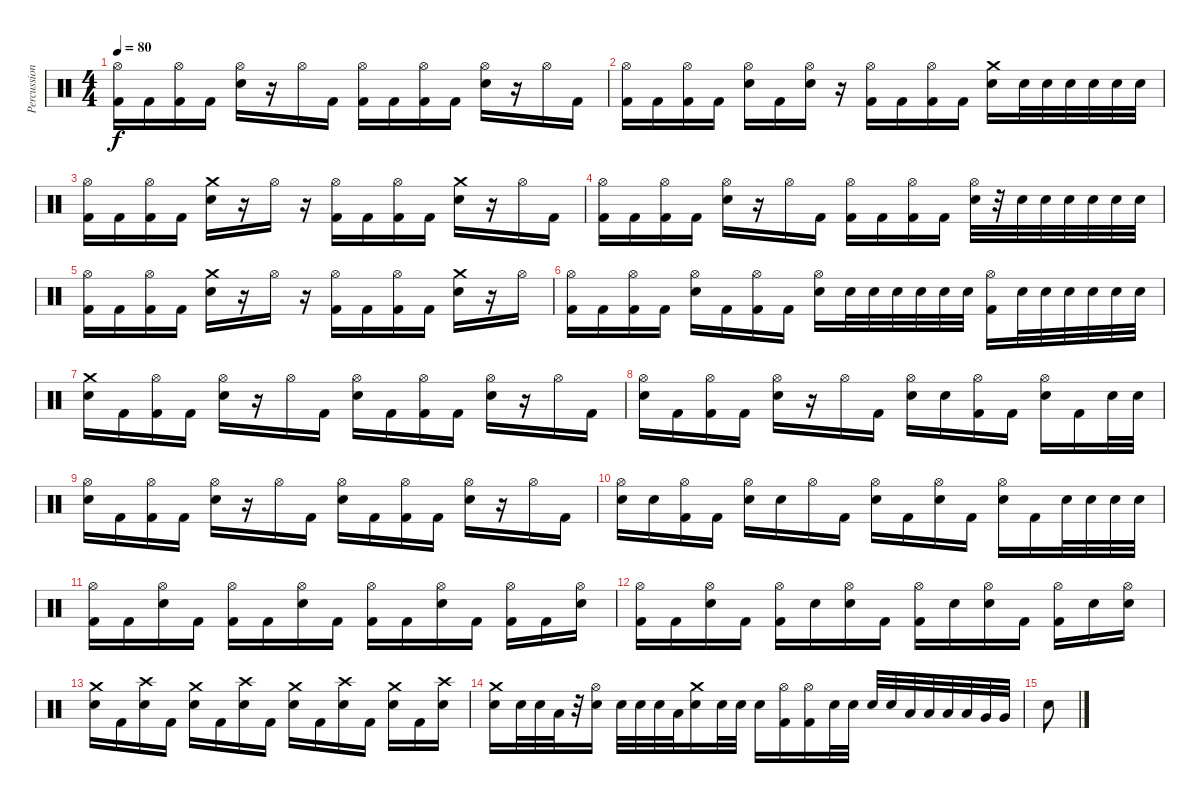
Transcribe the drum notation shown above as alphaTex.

\track ("Percussion" "Percussion") {instrument percussion}
\staff {score}
\articulation defaults
\ts (4 4)
\tempo 80
\clef neutral
\ks c
("Hi-Hat (open)" "Kick (hit) 2").16{dy f} "Kick (hit) 2".16 ("Hi-Hat (open)" "Kick (hit) 2").16 "Kick (hit) 2".16 ("Hi-Hat (open)" "Electric Snare (hit)").16 r.16 "Hi-Hat (open)".16 "Kick (hit) 2".16 ("Hi-Hat (open)" "Kick (hit) 2").16 "Kick (hit) 2".16 ("Hi-Hat (open)" "Kick (hit) 2").16 "Kick (hit) 2".16 ("Hi-Hat (open)" "Electric Snare (hit)").16 r.16 "Hi-Hat (open)".16 "Kick (hit) 2".16 |
("Hi-Hat (open)" "Kick (hit) 2").16 "Kick (hit) 2".16 ("Hi-Hat (open)" "Kick (hit) 2").16 "Kick (hit) 2".16 ("Hi-Hat (open)" "Electric Snare (hit)").16 "Kick (hit) 2".16 ("Hi-Hat (open)" "Electric Snare (hit)").16 r.16 ("Hi-Hat (open)" "Kick (hit) 2").16 "Kick (hit) 2".16 ("Hi-Hat (open)" "Kick (hit) 2").16 "Kick (hit) 2".16 ("Crash medium (hit)" "Electric Snare (hit)").16 "Electric Snare (hit)".32 "Electric Snare (hit)".32 "Electric Snare (hit)".32 "Electric Snare (hit)".32 "Electric Snare (hit)".32 "Electric Snare (hit)".32 |
("Hi-Hat (open)" "Kick (hit) 2").16 "Kick (hit) 2".16 ("Hi-Hat (open)" "Kick (hit) 2").16 "Kick (hit) 2".16 ("Crash medium (hit)" "Electric Snare (hit)").16 r.16 "Hi-Hat (open)".16 r.16 ("Hi-Hat (open)" "Kick (hit) 2").16 "Kick (hit) 2".16 ("Hi-Hat (open)" "Kick (hit) 2").16 "Kick (hit) 2".16 ("Crash medium (hit)" "Electric Snare (hit)").16 r.16 "Hi-Hat (open)".16 "Kick (hit) 2".16 |
("Hi-Hat (open)" "Kick (hit) 2").16 "Kick (hit) 2".16 ("Hi-Hat (open)" "Kick (hit) 2").16 "Kick (hit) 2".16 ("Hi-Hat (open)" "Electric Snare (hit)").16 r.16 "Hi-Hat (open)".16 "Kick (hit) 2".16 ("Hi-Hat (open)" "Kick (hit) 2").16 "Kick (hit) 2".16 ("Hi-Hat (open)" "Kick (hit) 2").16 "Kick (hit) 2".16 ("Hi-Hat (open)" "Electric Snare (hit)").32 r.32 "Electric Snare (hit)".32 "Electric Snare (hit)".32 "Electric Snare (hit)".32 "Electric Snare (hit)".32 "Electric Snare (hit)".32 "Electric Snare (hit)".32 |
("Hi-Hat (open)" "Kick (hit) 2").16 "Kick (hit) 2".16 ("Hi-Hat (open)" "Kick (hit) 2").16 "Kick (hit) 2".16 ("Crash medium (hit)" "Electric Snare (hit)").16 r.16 "Hi-Hat (open)".16 r.16 ("Hi-Hat (open)" "Kick (hit) 2").16 "Kick (hit) 2".16 ("Hi-Hat (open)" "Kick (hit) 2").16 "Kick (hit) 2".16 ("Crash medium (hit)" "Electric Snare (hit)").16 r.16 "Hi-Hat (open)".16 |
("Hi-Hat (open)" "Kick (hit) 2").16 "Kick (hit) 2".16 ("Hi-Hat (open)" "Kick (hit) 2").16 "Kick (hit) 2".16 ("Hi-Hat (open)" "Electric Snare (hit)").16 "Kick (hit) 2".16 ("Hi-Hat (open)" "Kick (hit) 2").16 "Kick (hit) 2".16 ("Hi-Hat (open)" "Electric Snare (hit)").16 "Electric Snare (hit)".32 "Electric Snare (hit)".32 "Electric Snare (hit)".32 "Electric Snare (hit)".32 "Electric Snare (hit)".32 "Electric Snare (hit)".32 ("Hi-Hat (open)" "Kick (hit) 2").16 "Electric Snare (hit)".32 "Electric Snare (hit)".32 "Electric Snare (hit)".32 "Electric Snare (hit)".32 "Electric Snare (hit)".32 "Electric Snare (hit)".32 |
("Crash medium (hit)" "Electric Snare (hit)").16 "Kick (hit) 2".16 ("Hi-Hat (open)" "Kick (hit) 2").16 "Kick (hit) 2".16 ("Hi-Hat (open)" "Electric Snare (hit)").16 r.16 "Hi-Hat (open)".16 "Kick (hit) 2".16 ("Hi-Hat (open)" "Electric Snare (hit)").16 "Kick (hit) 2".16 ("Hi-Hat (open)" "Kick (hit) 2").16 "Kick (hit) 2".16 ("Hi-Hat (open)" "Electric Snare (hit)").16 r.16 "Hi-Hat (open)".16 "Kick (hit) 2".16 |
("Hi-Hat (open)" "Electric Snare (hit)").16 "Kick (hit) 2".16 ("Hi-Hat (open)" "Kick (hit) 2").16 "Kick (hit) 2".16 ("Hi-Hat (open)" "Electric Snare (hit)").16 r.16 "Hi-Hat (open)".16 "Kick (hit) 2".16 ("Hi-Hat (open)" "Electric Snare (hit)").16 "Electric Snare (hit)".16 ("Hi-Hat (open)" "Kick (hit) 2").16 "Kick (hit) 2".16 ("Hi-Hat (open)" "Electric Snare (hit)").16 "Kick (hit) 2".16 "Electric Snare (hit)".32 "Electric Snare (hit)".32 |
("Hi-Hat (open)" "Electric Snare (hit)").16 "Kick (hit) 2".16 ("Hi-Hat (open)" "Kick (hit) 2").16 "Kick (hit) 2".16 ("Hi-Hat (open)" "Electric Snare (hit)").16 r.16 "Hi-Hat (open)".16 "Kick (hit) 2".16 ("Hi-Hat (open)" "Electric Snare (hit)").16 "Kick (hit) 2".16 ("Hi-Hat (open)" "Kick (hit) 2").16 "Kick (hit) 2".16 ("Hi-Hat (open)" "Electric Snare (hit)").16 r.16 "Hi-Hat (open)".16 "Kick (hit) 2".16 |
("Hi-Hat (open)" "Electric Snare (hit)").16 "Electric Snare (hit)".16 ("Hi-Hat (open)" "Kick (hit) 2").16 "Kick (hit) 2".16 ("Hi-Hat (open)" "Electric Snare (hit)").16 "Electric Snare (hit)".16 "Hi-Hat (open)".16 "Kick (hit) 2".16 ("Hi-Hat (open)" "Electric Snare (hit)").16 "Kick (hit) 2".16 ("Hi-Hat (open)" "Electric Snare (hit)").16 "Kick (hit) 2".16 ("Hi-Hat (open)" "Electric Snare (hit)").16 "Kick (hit) 2".16 "Electric Snare (hit)".32 "Electric Snare (hit)".32 "Electric Snare (hit)".32 "Electric Snare (hit)".32 |
("Hi-Hat (open)" "Kick (hit) 2").16 "Kick (hit) 2".16 ("Hi-Hat (open)" "Electric Snare (hit)").16 "Kick (hit) 2".16 ("Hi-Hat (open)" "Kick (hit) 2").16 "Kick (hit) 2".16 ("Hi-Hat (open)" "Electric Snare (hit)").16 "Kick (hit) 2".16 ("Hi-Hat (open)" "Kick (hit) 2").16 "Kick (hit) 2".16 ("Hi-Hat (open)" "Electric Snare (hit)").16 "Kick (hit) 2".16 ("Hi-Hat (open)" "Kick (hit) 2").16 "Kick (hit) 2".16 ("Hi-Hat (open)" "Electric Snare (hit)").16 |
("Hi-Hat (open)" "Kick (hit) 2").16 "Kick (hit) 2".16 ("Hi-Hat (open)" "Electric Snare (hit)").16 "Kick (hit) 2".16 ("Hi-Hat (open)" "Kick (hit) 2").16 "Electric Snare (hit)".16 ("Hi-Hat (open)" "Electric Snare (hit)").16 "Kick (hit) 2".16 ("Hi-Hat (open)" "Kick (hit) 2").16 "Electric Snare (hit)".16 ("Hi-Hat (open)" "Electric Snare (hit)").16 "Kick (hit) 2".16 ("Hi-Hat (open)" "Kick (hit) 2").16 "Electric Snare (hit)".16 ("Hi-Hat (open)" "Electric Snare (hit)").16 |
("Crash medium (hit)" "Electric Snare (hit)").16 "Kick (hit) 2".16 ("Crash high (hit)" "Electric Snare (hit)").16 "Kick (hit) 2".16 ("Crash medium (hit)" "Electric Snare (hit)").16 "Kick (hit) 2".16 ("Crash high (hit)" "Electric Snare (hit)").16 "Kick (hit) 2".16 ("Crash medium (hit)" "Electric Snare (hit)").16 "Kick (hit) 2".16 ("Crash high (hit)" "Electric Snare (hit)").16 "Kick (hit) 2".16 ("Crash medium (hit)" "Electric Snare (hit)").16 "Kick (hit) 2".16 ("Crash high (hit)" "Electric Snare (hit)").16 |
("Crash medium (hit)" "Electric Snare (hit)").16 "Electric Snare (hit)".32 "Electric Snare (hit)".32 "Low Tom (hit)".32 r.32 ("Hi-Hat (open)" "Electric Snare (hit)").16 "Electric Snare (hit)".32 "Electric Snare (hit)".32 "Electric Snare (hit)".32 "Low Tom (hit)".32 ("Crash medium (hit)" "Electric Snare (hit)").16 "Electric Snare (hit)".32 "Electric Snare (hit)".32 "Electric Snare (hit)".16 ("Hi-Hat (open)" "Kick (hit) 2").16 ("Hi-Hat (open)" "Kick (hit) 2").16 "Electric Snare (hit)".32 "Electric Snare (hit)".32 "Electric Snare (hit)".32 "Electric Snare (hit)".32 "Low Tom (hit)".32 "Low Tom (hit)".32 "Low Tom (hit)".32 "Low Tom (hit)".32 "Very Low Tom (hit)".32 "Very Low Tom (hit)".32 |
"Electric Snare (hit)".8
